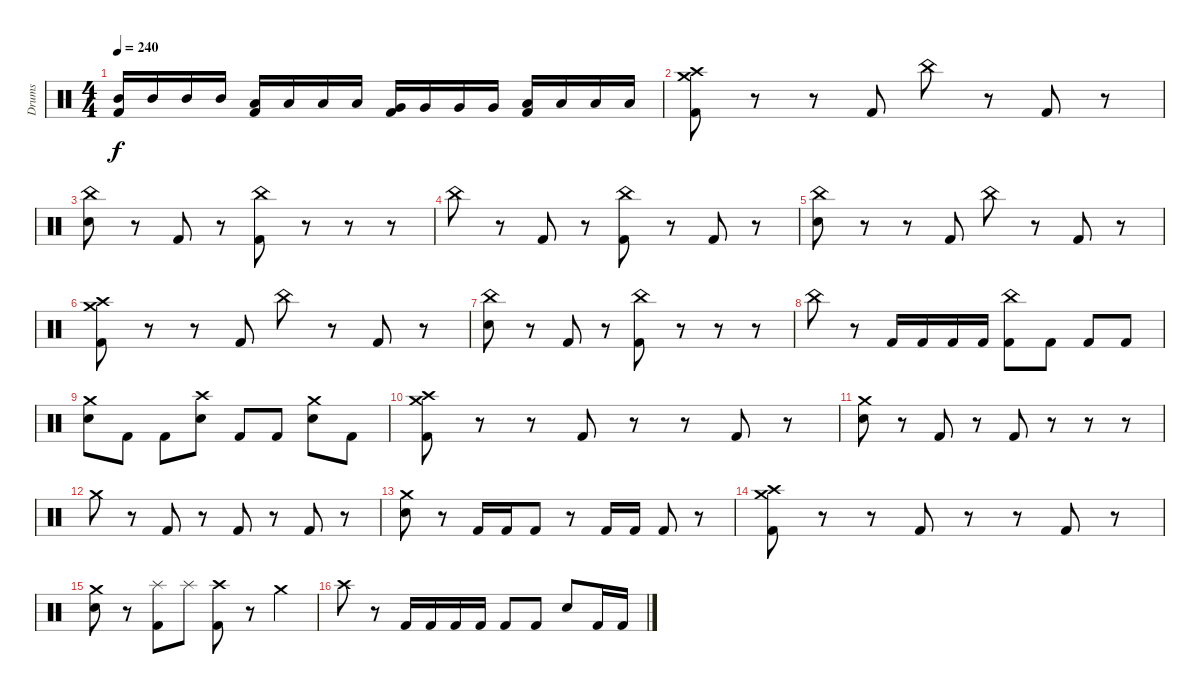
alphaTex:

\track ("Drums" "Drums") {instrument percussion}
\staff {score}
\articulation defaults
\ts (4 4)
\tempo 240
\clef neutral
\ks c
("Mid Tom (hit)" "Kick (hit) 2").16{dy f} "Mid Tom (hit)".16 "Mid Tom (hit)".16 "Mid Tom (hit)".16 ("Low Tom (hit)" "Kick (hit) 2").16 "Low Tom (hit)".16 "Low Tom (hit)".16 "Low Tom (hit)".16 ("Very Low Tom (hit)" "Kick (hit) 2").16 "Very Low Tom (hit)".16 "Very Low Tom (hit)".16 "Very Low Tom (hit)".16 ("Low Floor Tom (hit)" "Kick (hit) 2").16 "Low Floor Tom (hit)".16 "Low Floor Tom (hit)".16 "Low Floor Tom (hit)".16 |
("Crash medium (hit)" "Crash high (hit)" "Kick (hit) 2").8 r.8 r.8 "Kick (hit) 2".8 "China (hit)".8 r.8 "Kick (hit) 2".8 r.8 |
("China (hit)" "Electric Snare (hit)").8 r.8 "Kick (hit) 2".8 r.8 ("China (hit)" "Kick (hit) 2").8 r.8 r.8 r.8 |
"China (hit)".8 r.8 "Kick (hit) 2".8 r.8 ("China (hit)" "Kick (hit) 2").8 r.8 "Kick (hit) 2".8 r.8 |
("China (hit)" "Electric Snare (hit)").8 r.8 r.8 "Kick (hit) 2".8 "China (hit)".8 r.8 "Kick (hit) 2".8 r.8 |
("Crash medium (hit)" "Crash high (hit)" "Kick (hit) 2").8 r.8 r.8 "Kick (hit) 2".8 "China (hit)".8 r.8 "Kick (hit) 2".8 r.8 |
("China (hit)" "Electric Snare (hit)").8 r.8 "Kick (hit) 2".8 r.8 ("China (hit)" "Kick (hit) 2").8 r.8 r.8 r.8 |
"China (hit)".8 r.8 "Kick (hit) 2".16 "Kick (hit) 2".16 "Kick (hit) 2".16 "Kick (hit) 2".16 ("China (hit)" "Kick (hit) 2").8 "Kick (hit) 2".8 "Kick (hit) 2".8 "Kick (hit) 2".8 |
("Crash medium (hit)" "Electric Snare (hit)").8 "Kick (hit) 2".8 "Kick (hit) 2".8 ("Crash high (hit)" "Electric Snare (hit)").8 "Kick (hit) 2".8 "Kick (hit) 2".8 ("Crash medium (hit)" "Electric Snare (hit)").8 "Kick (hit) 2".8 |
("Crash medium (hit)" "Crash high (hit)" "Kick (hit) 2").8 r.8 r.8 "Kick (hit) 2".8 r.8 r.8 "Kick (hit) 2".8 r.8 |
("Crash medium (hit)" "Electric Snare (hit)").8 r.8 "Kick (hit) 2".8 r.8 "Kick (hit) 2".8 r.8 r.8 r.8 |
"Crash medium (hit)".8 r.8 "Kick (hit) 2".8 r.8 "Kick (hit) 2".8 r.8 "Kick (hit) 2".8 r.8 |
("Crash medium (hit)" "Electric Snare (hit)").8 r.8 "Kick (hit) 2".16 "Kick (hit) 2".16 "Kick (hit) 2".8 r.8 "Kick (hit) 2".16 "Kick (hit) 2".16 "Kick (hit) 2".8 r.8 |
("Crash medium (hit)" "Crash high (hit)" "Kick (hit) 2").8 r.8 r.8 "Kick (hit) 2".8 r.8 r.8 "Kick (hit) 2".8 r.8 |
("Crash medium (hit)" "Electric Snare (hit)").8 r.8 ("Splash (hit)" "Kick (hit) 2").8 "Splash (hit)".8 ("Crash high (hit)" "Kick (hit) 2").8 r.8 "Crash medium (hit)".4 |
"Crash high (hit)".8 r.8 "Kick (hit) 2".16 "Kick (hit) 2".16 "Kick (hit) 2".16 "Kick (hit) 2".16 "Kick (hit) 2".8 "Kick (hit) 2".8 "Electric Snare (hit)".8 "Kick (hit) 2".16 "Kick (hit) 2".16
